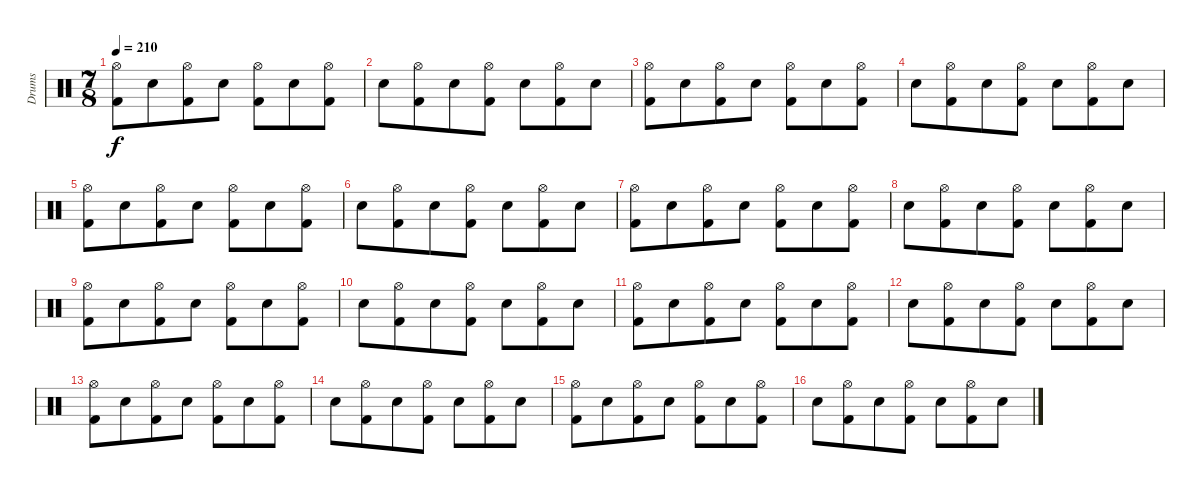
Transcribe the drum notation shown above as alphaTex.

\track ("Drums" "Drums") {instrument percussion}
\staff {score}
\articulation defaults
\ts (7 8)
\tempo 210
\clef neutral
\ks c
("Hi-Hat (open)" "Kick (hit) 2").8{dy f} "Electric Snare (hit)".8 ("Hi-Hat (open)" "Kick (hit) 2").8 "Electric Snare (hit)".8 ("Hi-Hat (open)" "Kick (hit) 2").8 "Electric Snare (hit)".8 ("Hi-Hat (open)" "Kick (hit) 2").8 |
"Electric Snare (hit)".8 ("Hi-Hat (open)" "Kick (hit) 2").8 "Electric Snare (hit)".8 ("Hi-Hat (open)" "Kick (hit) 2").8 "Electric Snare (hit)".8 ("Hi-Hat (open)" "Kick (hit) 2").8 "Electric Snare (hit)".8 |
("Hi-Hat (open)" "Kick (hit) 2").8 "Electric Snare (hit)".8 ("Hi-Hat (open)" "Kick (hit) 2").8 "Electric Snare (hit)".8 ("Hi-Hat (open)" "Kick (hit) 2").8 "Electric Snare (hit)".8 ("Hi-Hat (open)" "Kick (hit) 2").8 |
"Electric Snare (hit)".8 ("Hi-Hat (open)" "Kick (hit) 2").8 "Electric Snare (hit)".8 ("Hi-Hat (open)" "Kick (hit) 2").8 "Electric Snare (hit)".8 ("Hi-Hat (open)" "Kick (hit) 2").8 "Electric Snare (hit)".8 |
("Hi-Hat (open)" "Kick (hit) 2").8 "Electric Snare (hit)".8 ("Hi-Hat (open)" "Kick (hit) 2").8 "Electric Snare (hit)".8 ("Hi-Hat (open)" "Kick (hit) 2").8 "Electric Snare (hit)".8 ("Hi-Hat (open)" "Kick (hit) 2").8 |
"Electric Snare (hit)".8 ("Hi-Hat (open)" "Kick (hit) 2").8 "Electric Snare (hit)".8 ("Hi-Hat (open)" "Kick (hit) 2").8 "Electric Snare (hit)".8 ("Hi-Hat (open)" "Kick (hit) 2").8 "Electric Snare (hit)".8 |
("Hi-Hat (open)" "Kick (hit) 2").8 "Electric Snare (hit)".8 ("Hi-Hat (open)" "Kick (hit) 2").8 "Electric Snare (hit)".8 ("Hi-Hat (open)" "Kick (hit) 2").8 "Electric Snare (hit)".8 ("Hi-Hat (open)" "Kick (hit) 2").8 |
"Electric Snare (hit)".8 ("Hi-Hat (open)" "Kick (hit) 2").8 "Electric Snare (hit)".8 ("Hi-Hat (open)" "Kick (hit) 2").8 "Electric Snare (hit)".8 ("Hi-Hat (open)" "Kick (hit) 2").8 "Electric Snare (hit)".8 |
("Hi-Hat (open)" "Kick (hit) 2").8 "Electric Snare (hit)".8 ("Hi-Hat (open)" "Kick (hit) 2").8 "Electric Snare (hit)".8 ("Hi-Hat (open)" "Kick (hit) 2").8 "Electric Snare (hit)".8 ("Hi-Hat (open)" "Kick (hit) 2").8 |
"Electric Snare (hit)".8 ("Hi-Hat (open)" "Kick (hit) 2").8 "Electric Snare (hit)".8 ("Hi-Hat (open)" "Kick (hit) 2").8 "Electric Snare (hit)".8 ("Hi-Hat (open)" "Kick (hit) 2").8 "Electric Snare (hit)".8 |
("Hi-Hat (open)" "Kick (hit) 2").8 "Electric Snare (hit)".8 ("Hi-Hat (open)" "Kick (hit) 2").8 "Electric Snare (hit)".8 ("Hi-Hat (open)" "Kick (hit) 2").8 "Electric Snare (hit)".8 ("Hi-Hat (open)" "Kick (hit) 2").8 |
"Electric Snare (hit)".8 ("Hi-Hat (open)" "Kick (hit) 2").8 "Electric Snare (hit)".8 ("Hi-Hat (open)" "Kick (hit) 2").8 "Electric Snare (hit)".8 ("Hi-Hat (open)" "Kick (hit) 2").8 "Electric Snare (hit)".8 |
("Hi-Hat (open)" "Kick (hit) 2").8 "Electric Snare (hit)".8 ("Hi-Hat (open)" "Kick (hit) 2").8 "Electric Snare (hit)".8 ("Hi-Hat (open)" "Kick (hit) 2").8 "Electric Snare (hit)".8 ("Hi-Hat (open)" "Kick (hit) 2").8 |
"Electric Snare (hit)".8 ("Hi-Hat (open)" "Kick (hit) 2").8 "Electric Snare (hit)".8 ("Hi-Hat (open)" "Kick (hit) 2").8 "Electric Snare (hit)".8 ("Hi-Hat (open)" "Kick (hit) 2").8 "Electric Snare (hit)".8 |
("Hi-Hat (open)" "Kick (hit) 2").8 "Electric Snare (hit)".8 ("Hi-Hat (open)" "Kick (hit) 2").8 "Electric Snare (hit)".8 ("Hi-Hat (open)" "Kick (hit) 2").8 "Electric Snare (hit)".8 ("Hi-Hat (open)" "Kick (hit) 2").8 |
"Electric Snare (hit)".8 ("Hi-Hat (open)" "Kick (hit) 2").8 "Electric Snare (hit)".8 ("Hi-Hat (open)" "Kick (hit) 2").8 "Electric Snare (hit)".8 ("Hi-Hat (open)" "Kick (hit) 2").8 "Electric Snare (hit)".8
